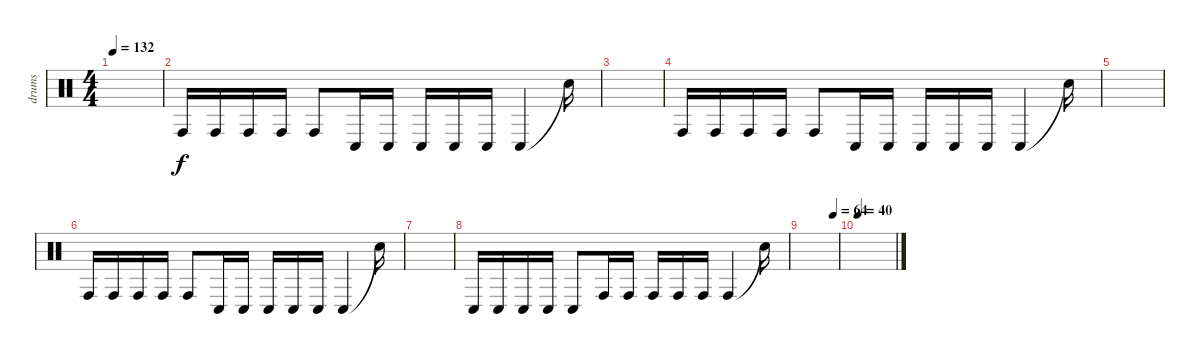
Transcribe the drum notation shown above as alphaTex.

\track ("drums" "drums") {instrument percussion}
\staff {score}
\articulation defaults
\ts (4 4)
\tempo 132
\clef neutral
\ks c
|
"Conga high (hit)".16 "Conga high (hit)".16 "Conga high (hit)".16 "Conga high (hit)".16 "Conga high (hit)".8 "Conga low (hit)".16 "Conga low (hit)".16 "Conga low (hit)".16 "Conga low (hit)".16 "Conga low (hit)".16 "Conga low (hit)".4 "Snare (hit)"{t}.16 |
|
"Conga high (hit)".16 "Conga high (hit)".16 "Conga high (hit)".16 "Conga high (hit)".16 "Conga high (hit)".8 "Conga low (hit)".16 "Conga low (hit)".16 "Conga low (hit)".16 "Conga low (hit)".16 "Conga low (hit)".16 "Conga low (hit)".4 "Snare (hit)"{t}.16 |
|
"Conga high (hit)".16 "Conga high (hit)".16 "Conga high (hit)".16 "Conga high (hit)".16 "Conga high (hit)".8 "Conga low (hit)".16 "Conga low (hit)".16 "Conga low (hit)".16 "Conga low (hit)".16 "Conga low (hit)".16 "Conga low (hit)".4 "Snare (hit)"{t}.16 |
|
"Conga low (hit)".16 "Conga low (hit)".16 "Conga low (hit)".16 "Conga low (hit)".16 "Conga low (hit)".8 "Conga high (hit)".16 "Conga high (hit)".16 "Conga high (hit)".16 "Conga high (hit)".16 "Conga high (hit)".16 "Conga high (hit)".4 "Snare (hit)"{t}.16 |
\tempo (64 0.875)
|
\tempo 40
